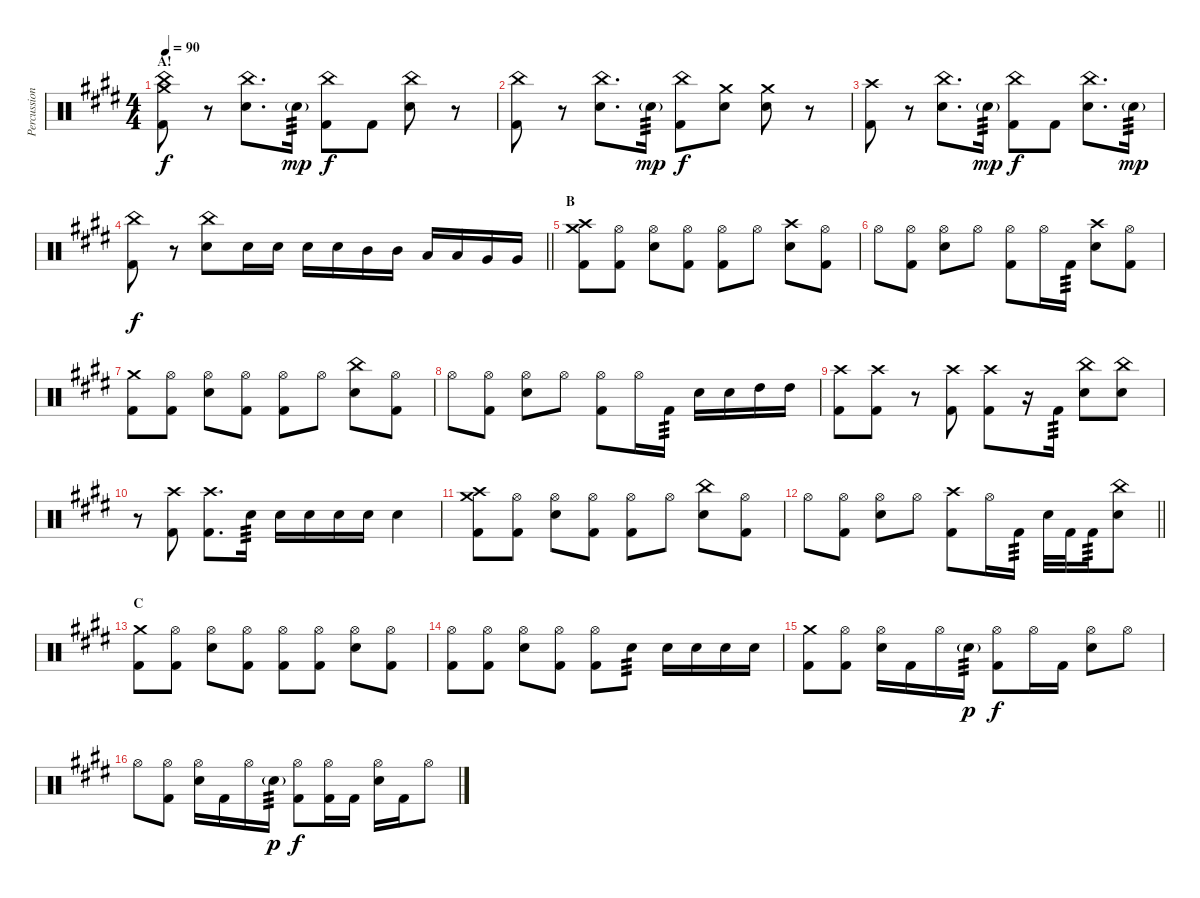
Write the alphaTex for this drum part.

\track ("Percussion" "Percussion") {instrument percussion}
\staff {score}
\articulation defaults
\ts (4 4)
\section ("" "A!")
\tempo 90
\clef neutral
\ks c#minor
("China (hit)" "Crash medium (hit)" "Kick (hit) 2").8{dy f} r.8 ("China (hit)" "Snare (hit) 2").8{d} "Snare (hit) 2"{g}.16{tp 3 dy mp} ("China (hit)" "Kick (hit) 2").8{dy f} "Kick (hit) 2".8 ("China (hit)" "Snare (hit) 2").8 r.8 |
("China (hit)" "Kick (hit) 2").8 r.8 ("China (hit)" "Snare (hit) 2").8{d} "Snare (hit) 2"{g}.16{tp 3 dy mp} ("China (hit)" "Kick (hit) 2").8{dy f} ("Crash medium (hit)" "Snare (hit) 2").8 ("Crash medium (hit)" "Snare (hit) 2").8 r.8 |
("Crash high (hit)" "Kick (hit) 2").8 r.8 ("China (hit)" "Snare (hit) 2").8{d} "Snare (hit) 2"{g}.16{tp 3 dy mp} ("China (hit)" "Kick (hit) 2").8{dy f} "Kick (hit) 2".8 ("China (hit)" "Snare (hit) 2").8{d} "Snare (hit) 2"{g}.16{tp 3 dy mp} |
\barLineRight lightlight
("China (hit)" "Kick (hit) 2").8{dy f} r.8 ("China (hit)" "Snare (hit) 2").8 "Snare (hit) 2".16 "Snare (hit) 2".16 "Snare (hit) 2".16 "Snare (hit) 2".16 "Mid Tom (hit)".16 "Mid Tom (hit)".16 "Low Tom (hit)".16 "Low Tom (hit)".16 "Very Low Tom (hit)".16 "Very Low Tom (hit)".16 |
\section ("" "B")
("Crash medium (hit)" "Crash high (hit)" "Kick (hit) 2").8 ("Hi-Hat (open)" "Kick (hit) 2").8 ("Hi-Hat (open)" "Snare (hit) 2").8 ("Hi-Hat (open)" "Kick (hit) 2").8 ("Hi-Hat (open)" "Kick (hit) 2").8 "Hi-Hat (open)".8 ("Crash high (hit)" "Snare (hit) 2").8 ("Hi-Hat (open)" "Kick (hit) 2").8 |
"Hi-Hat (open)".8 ("Hi-Hat (open)" "Kick (hit) 2").8 ("Hi-Hat (open)" "Snare (hit) 2").8 "Hi-Hat (open)".8 ("Hi-Hat (open)" "Kick (hit) 2").8 "Hi-Hat (open)".16 "Kick (hit) 2".16{tp 3} ("Crash high (hit)" "Snare (hit) 2").8 ("Hi-Hat (open)" "Kick (hit) 2").8 |
("Crash medium (hit)" "Kick (hit) 2").8 ("Hi-Hat (open)" "Kick (hit) 2").8 ("Hi-Hat (open)" "Snare (hit) 2").8 ("Hi-Hat (open)" "Kick (hit) 2").8 ("Hi-Hat (open)" "Kick (hit) 2").8 "Hi-Hat (open)".8 ("China (hit)" "Snare (hit) 2").8 ("Hi-Hat (open)" "Kick (hit) 2").8 |
"Hi-Hat (open)".8 ("Hi-Hat (open)" "Kick (hit) 2").8 ("Hi-Hat (open)" "Snare (hit) 2").8 "Hi-Hat (open)".8 ("Hi-Hat (open)" "Kick (hit) 2").8 "Hi-Hat (open)".16 "Kick (hit) 2".16{tp 3} "Snare (hit) 2".16 "Snare (hit) 2".16 "High Tom (hit)".16 "High Tom (hit)".16 |
("Crash high (hit)" "Kick (hit) 2").8 ("Crash high (hit)" "Kick (hit) 2").8 r.8{volume 0} ("Crash high (hit)" "Kick (hit) 2").8{volume 13} ("Crash high (hit)" "Kick (hit) 2").8 r.16 "Kick (hit) 2".16{tp 3} ("China (hit)" "Snare (hit) 2").8 ("China (hit)" "Snare (hit) 2").8 |
r.8{volume 0} ("Crash high (hit)" "Kick (hit) 2").8{volume 13} ("Crash high (hit)" "Kick (hit) 2").8{d} "Snare (hit) 2".16{tp 3} "Snare (hit) 2".16 "Snare (hit) 2".16 "Snare (hit) 2".16 "Snare (hit) 2".16 "Snare (hit) 2".4 |
("Crash medium (hit)" "Crash high (hit)" "Kick (hit) 2").8 ("Hi-Hat (open)" "Kick (hit) 2").8 ("Hi-Hat (open)" "Snare (hit) 2").8 ("Hi-Hat (open)" "Kick (hit) 2").8 ("Hi-Hat (open)" "Kick (hit) 2").8 "Hi-Hat (open)".8 ("China (hit)" "Snare (hit) 2").8 ("Hi-Hat (open)" "Kick (hit) 2").8 |
\barLineRight lightlight "Hi-Hat (open)".8
("Hi-Hat (open)" "Kick (hit) 2").8 ("Hi-Hat (open)" "Snare (hit) 2").8 "Hi-Hat (open)".8 ("Crash high (hit)" "Kick (hit) 2").8 "Hi-Hat (open)".16 "Kick (hit) 2".16{tp 3} "Snare (hit) 2".32 "Kick (hit) 2".32 "Kick (hit) 2".16{tp 3} ("China (hit)" "Snare (hit) 2").8 |
\section ("" "C")
("Crash medium (hit)" "Kick (hit) 2").8 ("Hi-Hat (open)" "Kick (hit) 2").8 ("Hi-Hat (open)" "Snare (hit) 2").8 ("Hi-Hat (open)" "Kick (hit) 2").8 ("Hi-Hat (open)" "Kick (hit) 2").8 ("Hi-Hat (open)" "Kick (hit) 2").8 ("Hi-Hat (open)" "Snare (hit) 2").8 ("Hi-Hat (open)" "Kick (hit) 2").8 |
("Hi-Hat (open)" "Kick (hit) 2").8 ("Hi-Hat (open)" "Kick (hit) 2").8 ("Hi-Hat (open)" "Snare (hit) 2").8 ("Hi-Hat (open)" "Kick (hit) 2").8 ("Hi-Hat (open)" "Kick (hit) 2").8 "Snare (hit) 2".8{tp 3} "Snare (hit) 2".16 "Snare (hit) 2".16 "Snare (hit) 2".16 "Snare (hit) 2".16 |
("Crash medium (hit)" "Kick (hit) 2").8 ("Hi-Hat (open)" "Kick (hit) 2").8 ("Hi-Hat (open)" "Snare (hit) 2").16 "Kick (hit) 2".16 "Hi-Hat (open)".16 "Snare (hit) 2"{g}.16{tp 3 dy p} ("Hi-Hat (open)" "Kick (hit) 2").8{dy f} "Hi-Hat (open)".16 "Kick (hit) 2".16 ("Hi-Hat (open)" "Snare (hit) 2").8 "Hi-Hat (open)".8 |
"Hi-Hat (open)".8 ("Hi-Hat (open)" "Kick (hit) 2").8 ("Hi-Hat (open)" "Snare (hit) 2").16 "Kick (hit) 2".16 "Hi-Hat (open)".16 "Snare (hit) 2"{g}.16{tp 3 dy p} ("Hi-Hat (open)" "Kick (hit) 2").8{dy f} ("Hi-Hat (open)" "Kick (hit) 2").16 "Kick (hit) 2".16 ("Hi-Hat (open)" "Snare (hit) 2").16 "Kick (hit) 2".16 "Hi-Hat (open)".8
